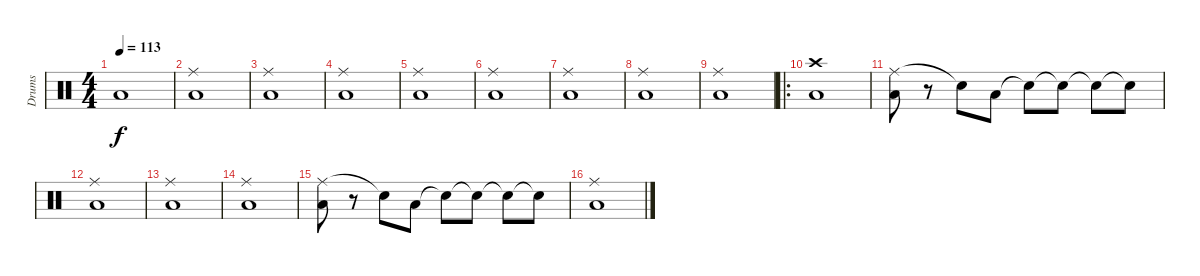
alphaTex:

\track ("Drums" "Drums") {instrument percussion}
\staff {score}
\articulation defaults
\ts (4 4)
\tempo 113
\clef neutral
\ks c "Low Floor Tom (hit)".1{dy f}
|
("Ride (middle)" "Low Floor Tom (hit)").1 |
("Ride (middle)" "Low Floor Tom (hit)").1 |
("Ride (middle)" "Low Floor Tom (hit)").1 |
("Ride (middle)" "Low Floor Tom (hit)").1 |
("Ride (middle)" "Low Floor Tom (hit)").1 |
("Ride (middle)" "Low Floor Tom (hit)").1 |
("Ride (middle)" "Low Floor Tom (hit)").1 |
("Ride (middle)" "Low Floor Tom (hit)").1 |
\ro
("Crash high (hit)" "Low Floor Tom (hit)").1 |
("Ride (middle)" "Low Floor Tom (hit)").8 r.8 "Snare (hit)"{t}.8 "Low Floor Tom (hit)".8 "Snare (hit)"{t}.8 "Snare (hit)"{t}.8 "Snare (hit)"{t}.8 "Snare (hit)"{t}.8 |
("Ride (middle)" "Low Floor Tom (hit)").1 |
("Ride (middle)" "Low Floor Tom (hit)").1 |
("Ride (middle)" "Low Floor Tom (hit)").1 |
("Ride (middle)" "Low Floor Tom (hit)").8 r.8 "Snare (hit)"{t}.8 "Low Floor Tom (hit)".8 "Snare (hit)"{t}.8 "Snare (hit)"{t}.8 "Snare (hit)"{t}.8 "Snare (hit)"{t}.8 |
("Ride (middle)" "Low Floor Tom (hit)").1
